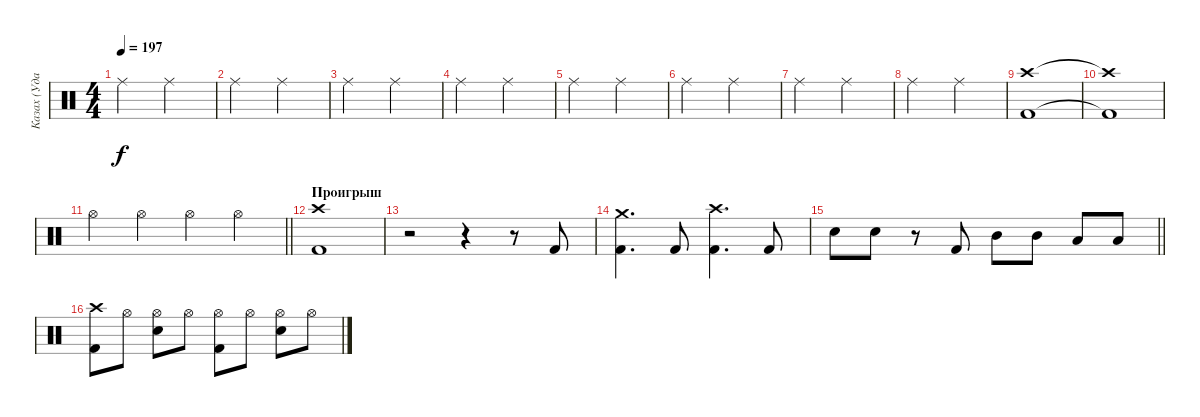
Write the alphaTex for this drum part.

\track ("Казах (Ударные)" "Казах (Уда") {instrument percussion}
\staff {score}
\articulation defaults
\ts (4 4)
\tempo 197
\clef neutral
\ks c "Ride (middle)".2{dy f} "Ride (middle)".2
|
"Ride (middle)".2 "Ride (middle)".2 |
"Ride (middle)".2 "Ride (middle)".2 |
"Ride (middle)".2 "Ride (middle)".2 |
"Ride (middle)".2 "Ride (middle)".2 |
"Ride (middle)".2 "Ride (middle)".2 |
"Ride (middle)".2 "Ride (middle)".2 |
"Ride (middle)".2 "Ride (middle)".2 |
("Crash high (hit)" "Kick (hit) 2").1 |
("Crash high (hit)"{t} "Kick (hit) 2"{t}).1 |
\barLineRight lightlight "Hi-Hat (open)".4 "Hi-Hat (open)".4 "Hi-Hat (open)".4 "Hi-Hat (open)".4
|
\section ("" "Проигрыш")
("Crash high (hit)" "Kick (hit) 2").1 |
r.2 r.4 r.8 "Kick (hit) 2".8 |
("Crash medium (hit)" "Kick (hit) 2").4{d} "Kick (hit) 2".8 ("Crash high (hit)" "Kick (hit) 2").4{d} "Kick (hit) 2".8 |
\barLineRight lightlight "Electric Snare (hit)".8 "Electric Snare (hit)".8
r.8 "Kick (hit) 2".8 "Mid Tom (hit)".8 "Mid Tom (hit)".8 "Low Tom (hit)".8 "Low Tom (hit)".8 |
\section ("" "")
("Crash high (hit)" "Kick (hit) 2").8 "Hi-Hat (open)".8 ("Hi-Hat (open)" "Electric Snare (hit)").8 "Hi-Hat (open)".8 ("Hi-Hat (open)" "Kick (hit) 2").8 "Hi-Hat (open)".8 ("Hi-Hat (open)" "Electric Snare (hit)").8 "Hi-Hat (open)".8
